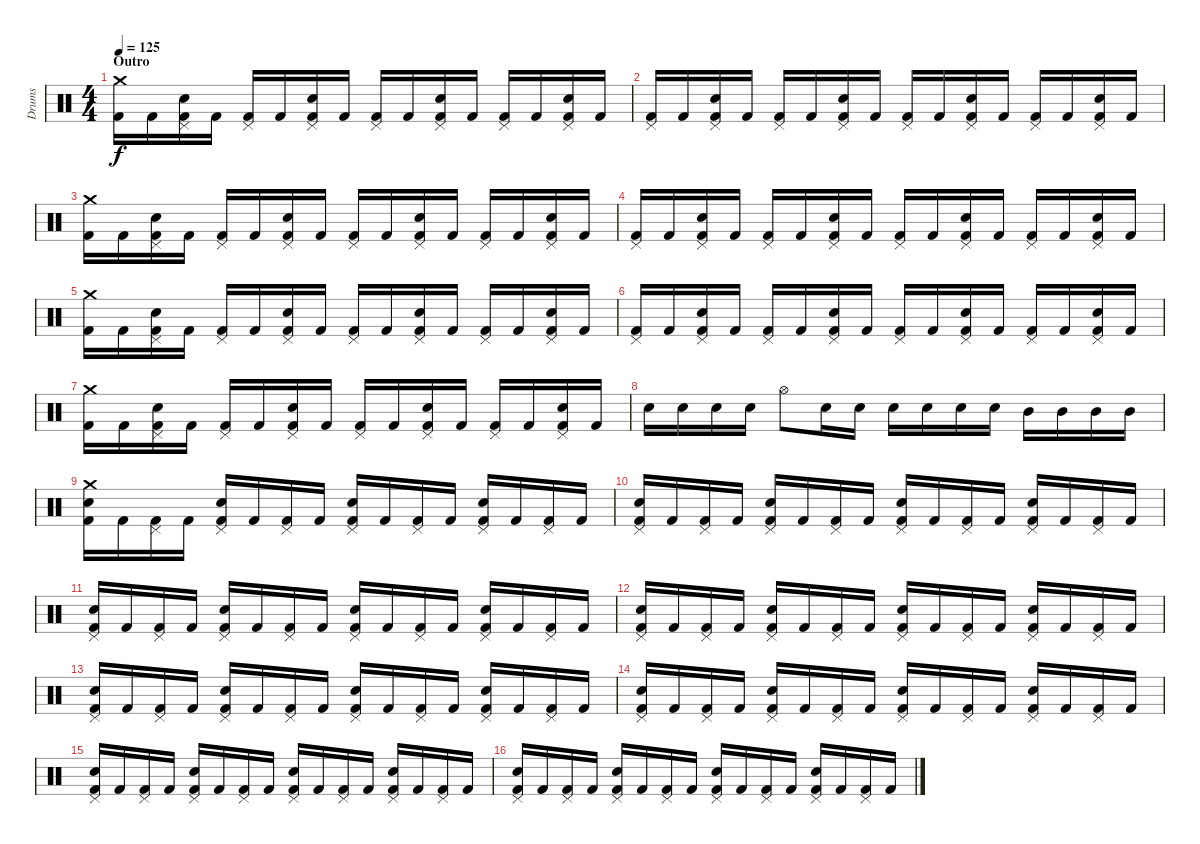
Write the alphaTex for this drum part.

\track ("Drums" "Drums") {instrument percussion}
\staff {score}
\articulation defaults
\ts (4 4)
\section ("" "Outro")
\tempo 125
\clef neutral
\ks c
("Crash medium (hit)" "Kick (hit) 2").16{dy f volume 12} "Kick (hit) 2".16 ("Pedal Hi-Hat (hit)" "Electric Snare (hit)" "Kick (hit) 2").16 "Kick (hit) 2".16 ("Pedal Hi-Hat (hit)" "Kick (hit) 2").16 "Kick (hit) 2".16 ("Pedal Hi-Hat (hit)" "Electric Snare (hit)" "Kick (hit) 2").16 "Kick (hit) 2".16 ("Pedal Hi-Hat (hit)" "Kick (hit) 2").16 "Kick (hit) 2".16 ("Pedal Hi-Hat (hit)" "Electric Snare (hit)" "Kick (hit) 2").16 "Kick (hit) 2".16 ("Pedal Hi-Hat (hit)" "Kick (hit) 2").16 "Kick (hit) 2".16 ("Pedal Hi-Hat (hit)" "Electric Snare (hit)" "Kick (hit) 2").16 "Kick (hit) 2".16 |
("Pedal Hi-Hat (hit)" "Kick (hit) 2").16 "Kick (hit) 2".16 ("Pedal Hi-Hat (hit)" "Electric Snare (hit)" "Kick (hit) 2").16 "Kick (hit) 2".16 ("Pedal Hi-Hat (hit)" "Kick (hit) 2").16 "Kick (hit) 2".16 ("Pedal Hi-Hat (hit)" "Electric Snare (hit)" "Kick (hit) 2").16 "Kick (hit) 2".16 ("Pedal Hi-Hat (hit)" "Kick (hit) 2").16 "Kick (hit) 2".16 ("Pedal Hi-Hat (hit)" "Electric Snare (hit)" "Kick (hit) 2").16 "Kick (hit) 2".16 ("Pedal Hi-Hat (hit)" "Kick (hit) 2").16 "Kick (hit) 2".16 ("Pedal Hi-Hat (hit)" "Electric Snare (hit)" "Kick (hit) 2").16 "Kick (hit) 2".16 |
("Crash medium (hit)" "Kick (hit) 2").16 "Kick (hit) 2".16 ("Pedal Hi-Hat (hit)" "Electric Snare (hit)" "Kick (hit) 2").16 "Kick (hit) 2".16 ("Pedal Hi-Hat (hit)" "Kick (hit) 2").16 "Kick (hit) 2".16 ("Pedal Hi-Hat (hit)" "Electric Snare (hit)" "Kick (hit) 2").16 "Kick (hit) 2".16 ("Pedal Hi-Hat (hit)" "Kick (hit) 2").16 "Kick (hit) 2".16 ("Pedal Hi-Hat (hit)" "Electric Snare (hit)" "Kick (hit) 2").16 "Kick (hit) 2".16 ("Pedal Hi-Hat (hit)" "Kick (hit) 2").16 "Kick (hit) 2".16 ("Pedal Hi-Hat (hit)" "Electric Snare (hit)" "Kick (hit) 2").16 "Kick (hit) 2".16 |
("Pedal Hi-Hat (hit)" "Kick (hit) 2").16 "Kick (hit) 2".16 ("Pedal Hi-Hat (hit)" "Electric Snare (hit)" "Kick (hit) 2").16 "Kick (hit) 2".16 ("Pedal Hi-Hat (hit)" "Kick (hit) 2").16 "Kick (hit) 2".16 ("Pedal Hi-Hat (hit)" "Electric Snare (hit)" "Kick (hit) 2").16 "Kick (hit) 2".16 ("Pedal Hi-Hat (hit)" "Kick (hit) 2").16 "Kick (hit) 2".16 ("Pedal Hi-Hat (hit)" "Electric Snare (hit)" "Kick (hit) 2").16 "Kick (hit) 2".16 ("Pedal Hi-Hat (hit)" "Kick (hit) 2").16 "Kick (hit) 2".16 ("Pedal Hi-Hat (hit)" "Electric Snare (hit)" "Kick (hit) 2").16 "Kick (hit) 2".16 |
("Crash medium (hit)" "Kick (hit) 2").16{volume 11} "Kick (hit) 2".16 ("Pedal Hi-Hat (hit)" "Electric Snare (hit)" "Kick (hit) 2").16 "Kick (hit) 2".16 ("Pedal Hi-Hat (hit)" "Kick (hit) 2").16 "Kick (hit) 2".16 ("Pedal Hi-Hat (hit)" "Electric Snare (hit)" "Kick (hit) 2").16 "Kick (hit) 2".16 ("Pedal Hi-Hat (hit)" "Kick (hit) 2").16 "Kick (hit) 2".16 ("Pedal Hi-Hat (hit)" "Electric Snare (hit)" "Kick (hit) 2").16 "Kick (hit) 2".16 ("Pedal Hi-Hat (hit)" "Kick (hit) 2").16 "Kick (hit) 2".16 ("Pedal Hi-Hat (hit)" "Electric Snare (hit)" "Kick (hit) 2").16 "Kick (hit) 2".16 |
("Pedal Hi-Hat (hit)" "Kick (hit) 2").16 "Kick (hit) 2".16 ("Pedal Hi-Hat (hit)" "Electric Snare (hit)" "Kick (hit) 2").16 "Kick (hit) 2".16 ("Pedal Hi-Hat (hit)" "Kick (hit) 2").16 "Kick (hit) 2".16 ("Pedal Hi-Hat (hit)" "Electric Snare (hit)" "Kick (hit) 2").16 "Kick (hit) 2".16 ("Pedal Hi-Hat (hit)" "Kick (hit) 2").16 "Kick (hit) 2".16 ("Pedal Hi-Hat (hit)" "Electric Snare (hit)" "Kick (hit) 2").16 "Kick (hit) 2".16 ("Pedal Hi-Hat (hit)" "Kick (hit) 2").16 "Kick (hit) 2".16 ("Pedal Hi-Hat (hit)" "Electric Snare (hit)" "Kick (hit) 2").16 "Kick (hit) 2".16 |
("Crash medium (hit)" "Kick (hit) 2").16{volume 10} "Kick (hit) 2".16 ("Pedal Hi-Hat (hit)" "Electric Snare (hit)" "Kick (hit) 2").16 "Kick (hit) 2".16 ("Pedal Hi-Hat (hit)" "Kick (hit) 2").16 "Kick (hit) 2".16 ("Pedal Hi-Hat (hit)" "Electric Snare (hit)" "Kick (hit) 2").16 "Kick (hit) 2".16 ("Pedal Hi-Hat (hit)" "Kick (hit) 2").16 "Kick (hit) 2".16 ("Pedal Hi-Hat (hit)" "Electric Snare (hit)" "Kick (hit) 2").16 "Kick (hit) 2".16 ("Pedal Hi-Hat (hit)" "Kick (hit) 2").16 "Kick (hit) 2".16 ("Pedal Hi-Hat (hit)" "Electric Snare (hit)" "Kick (hit) 2").16 "Kick (hit) 2".16 |
"Electric Snare (hit)".16 "Electric Snare (hit)".16 "Electric Snare (hit)".16 "Electric Snare (hit)".16 "Hi-Hat (open)".8 "Electric Snare (hit)".16 "Electric Snare (hit)".16 "Electric Snare (hit)".16 "Electric Snare (hit)".16 "Electric Snare (hit)".16 "Electric Snare (hit)".16 "Mid Tom (hit)".16 "Mid Tom (hit)".16 "Mid Tom (hit)".16 "Mid Tom (hit)".16 |
("Crash medium (hit)" "Electric Snare (hit)" "Kick (hit) 2").16{volume 9} "Kick (hit) 2".16 ("Pedal Hi-Hat (hit)" "Kick (hit) 2").16 "Kick (hit) 2".16 ("Pedal Hi-Hat (hit)" "Electric Snare (hit)" "Kick (hit) 2").16 "Kick (hit) 2".16 ("Pedal Hi-Hat (hit)" "Kick (hit) 2").16 "Kick (hit) 2".16 ("Pedal Hi-Hat (hit)" "Electric Snare (hit)" "Kick (hit) 2").16 "Kick (hit) 2".16 ("Pedal Hi-Hat (hit)" "Kick (hit) 2").16 "Kick (hit) 2".16 ("Pedal Hi-Hat (hit)" "Electric Snare (hit)" "Kick (hit) 2").16 "Kick (hit) 2".16 ("Pedal Hi-Hat (hit)" "Kick (hit) 2").16 "Kick (hit) 2".16 |
("Pedal Hi-Hat (hit)" "Electric Snare (hit)" "Kick (hit) 2").16 "Kick (hit) 2".16 ("Pedal Hi-Hat (hit)" "Kick (hit) 2").16 "Kick (hit) 2".16 ("Pedal Hi-Hat (hit)" "Electric Snare (hit)" "Kick (hit) 2").16 "Kick (hit) 2".16 ("Pedal Hi-Hat (hit)" "Kick (hit) 2").16 "Kick (hit) 2".16 ("Pedal Hi-Hat (hit)" "Electric Snare (hit)" "Kick (hit) 2").16 "Kick (hit) 2".16 ("Pedal Hi-Hat (hit)" "Kick (hit) 2").16 "Kick (hit) 2".16 ("Pedal Hi-Hat (hit)" "Electric Snare (hit)" "Kick (hit) 2").16 "Kick (hit) 2".16 ("Pedal Hi-Hat (hit)" "Kick (hit) 2").16 "Kick (hit) 2".16 |
("Pedal Hi-Hat (hit)" "Electric Snare (hit)" "Kick (hit) 2").16{volume 8} "Kick (hit) 2".16 ("Pedal Hi-Hat (hit)" "Kick (hit) 2").16 "Kick (hit) 2".16 ("Pedal Hi-Hat (hit)" "Electric Snare (hit)" "Kick (hit) 2").16 "Kick (hit) 2".16 ("Pedal Hi-Hat (hit)" "Kick (hit) 2").16 "Kick (hit) 2".16 ("Pedal Hi-Hat (hit)" "Electric Snare (hit)" "Kick (hit) 2").16 "Kick (hit) 2".16 ("Pedal Hi-Hat (hit)" "Kick (hit) 2").16 "Kick (hit) 2".16 ("Pedal Hi-Hat (hit)" "Electric Snare (hit)" "Kick (hit) 2").16 "Kick (hit) 2".16 ("Pedal Hi-Hat (hit)" "Kick (hit) 2").16 "Kick (hit) 2".16 |
("Pedal Hi-Hat (hit)" "Electric Snare (hit)" "Kick (hit) 2").16 "Kick (hit) 2".16 ("Pedal Hi-Hat (hit)" "Kick (hit) 2").16 "Kick (hit) 2".16 ("Pedal Hi-Hat (hit)" "Electric Snare (hit)" "Kick (hit) 2").16 "Kick (hit) 2".16 ("Pedal Hi-Hat (hit)" "Kick (hit) 2").16 "Kick (hit) 2".16 ("Pedal Hi-Hat (hit)" "Electric Snare (hit)" "Kick (hit) 2").16 "Kick (hit) 2".16 ("Pedal Hi-Hat (hit)" "Kick (hit) 2").16 "Kick (hit) 2".16 ("Pedal Hi-Hat (hit)" "Electric Snare (hit)" "Kick (hit) 2").16 "Kick (hit) 2".16 ("Pedal Hi-Hat (hit)" "Kick (hit) 2").16 "Kick (hit) 2".16 |
("Pedal Hi-Hat (hit)" "Electric Snare (hit)" "Kick (hit) 2").16{volume 7} "Kick (hit) 2".16 ("Pedal Hi-Hat (hit)" "Kick (hit) 2").16 "Kick (hit) 2".16 ("Pedal Hi-Hat (hit)" "Electric Snare (hit)" "Kick (hit) 2").16 "Kick (hit) 2".16 ("Pedal Hi-Hat (hit)" "Kick (hit) 2").16 "Kick (hit) 2".16 ("Pedal Hi-Hat (hit)" "Electric Snare (hit)" "Kick (hit) 2").16 "Kick (hit) 2".16 ("Pedal Hi-Hat (hit)" "Kick (hit) 2").16 "Kick (hit) 2".16 ("Pedal Hi-Hat (hit)" "Electric Snare (hit)" "Kick (hit) 2").16 "Kick (hit) 2".16 ("Pedal Hi-Hat (hit)" "Kick (hit) 2").16 "Kick (hit) 2".16 |
("Pedal Hi-Hat (hit)" "Electric Snare (hit)" "Kick (hit) 2").16 "Kick (hit) 2".16 ("Pedal Hi-Hat (hit)" "Kick (hit) 2").16 "Kick (hit) 2".16 ("Pedal Hi-Hat (hit)" "Electric Snare (hit)" "Kick (hit) 2").16 "Kick (hit) 2".16 ("Pedal Hi-Hat (hit)" "Kick (hit) 2").16 "Kick (hit) 2".16 ("Pedal Hi-Hat (hit)" "Electric Snare (hit)" "Kick (hit) 2").16 "Kick (hit) 2".16 ("Pedal Hi-Hat (hit)" "Kick (hit) 2").16 "Kick (hit) 2".16 ("Pedal Hi-Hat (hit)" "Electric Snare (hit)" "Kick (hit) 2").16 "Kick (hit) 2".16 ("Pedal Hi-Hat (hit)" "Kick (hit) 2").16 "Kick (hit) 2".16 |
("Pedal Hi-Hat (hit)" "Electric Snare (hit)" "Kick (hit) 2").16{volume 6} "Kick (hit) 2".16 ("Pedal Hi-Hat (hit)" "Kick (hit) 2").16 "Kick (hit) 2".16 ("Pedal Hi-Hat (hit)" "Electric Snare (hit)" "Kick (hit) 2").16 "Kick (hit) 2".16 ("Pedal Hi-Hat (hit)" "Kick (hit) 2").16 "Kick (hit) 2".16 ("Pedal Hi-Hat (hit)" "Electric Snare (hit)" "Kick (hit) 2").16 "Kick (hit) 2".16 ("Pedal Hi-Hat (hit)" "Kick (hit) 2").16 "Kick (hit) 2".16 ("Pedal Hi-Hat (hit)" "Electric Snare (hit)" "Kick (hit) 2").16 "Kick (hit) 2".16 ("Pedal Hi-Hat (hit)" "Kick (hit) 2").16 "Kick (hit) 2".16 |
("Pedal Hi-Hat (hit)" "Electric Snare (hit)" "Kick (hit) 2").16 "Kick (hit) 2".16 ("Pedal Hi-Hat (hit)" "Kick (hit) 2").16 "Kick (hit) 2".16 ("Pedal Hi-Hat (hit)" "Electric Snare (hit)" "Kick (hit) 2").16 "Kick (hit) 2".16 ("Pedal Hi-Hat (hit)" "Kick (hit) 2").16 "Kick (hit) 2".16 ("Pedal Hi-Hat (hit)" "Electric Snare (hit)" "Kick (hit) 2").16 "Kick (hit) 2".16 ("Pedal Hi-Hat (hit)" "Kick (hit) 2").16 "Kick (hit) 2".16 ("Pedal Hi-Hat (hit)" "Electric Snare (hit)" "Kick (hit) 2").16 "Kick (hit) 2".16 ("Pedal Hi-Hat (hit)" "Kick (hit) 2").16 "Kick (hit) 2".16
